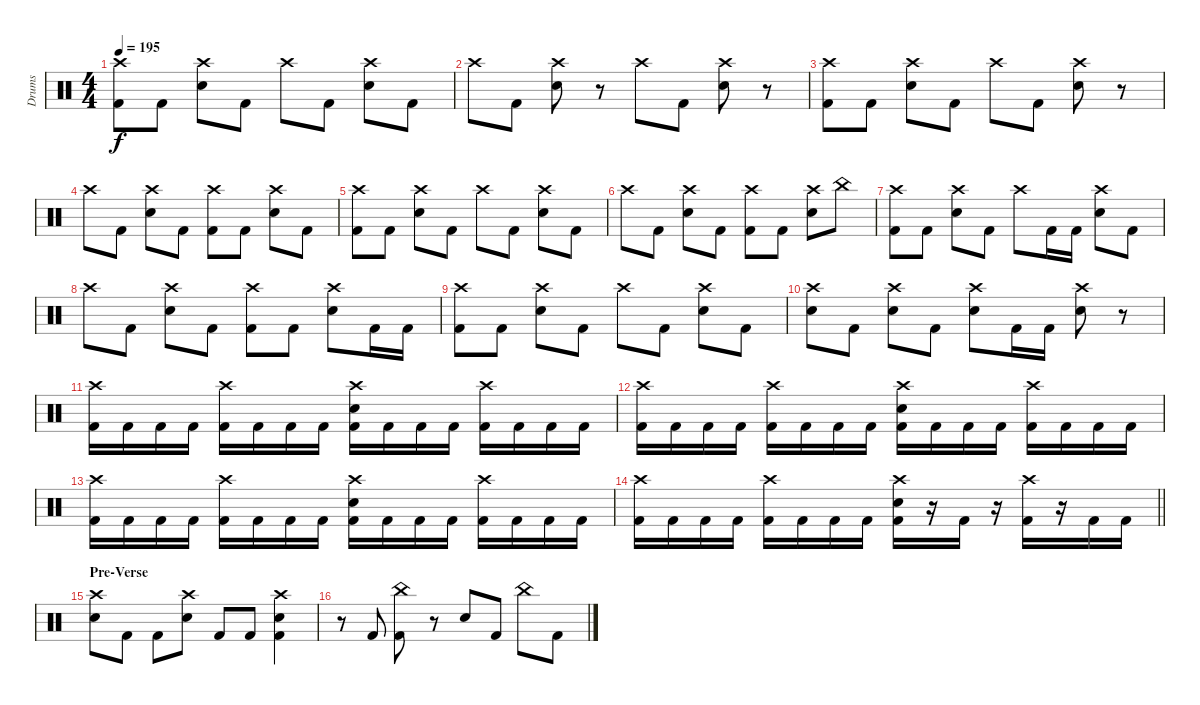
\track ("Drums" "Drums") {instrument percussion}
\staff {score}
\articulation defaults
\ts (4 4)
\tempo 195
\clef neutral
\ks c
("Crash high (hit)" "Kick (hit) 2").8{dy f} "Kick (hit) 2".8 ("Crash high (hit)" "Snare (hit) 2").8 "Kick (hit) 2".8 "Crash high (hit)".8 "Kick (hit) 2".8 ("Crash high (hit)" "Snare (hit) 2").8 "Kick (hit) 2".8 |
"Crash high (hit)".8 "Kick (hit) 2".8 ("Crash high (hit)" "Snare (hit) 2").8 r.8 "Crash high (hit)".8 "Kick (hit) 2".8 ("Crash high (hit)" "Snare (hit) 2").8 r.8 |
("Crash high (hit)" "Kick (hit) 2").8 "Kick (hit) 2".8 ("Crash high (hit)" "Snare (hit) 2").8 "Kick (hit) 2".8 "Crash high (hit)".8 "Kick (hit) 2".8 ("Crash high (hit)" "Snare (hit) 2").8 r.8 |
"Crash high (hit)".8 "Kick (hit) 2".8 ("Crash high (hit)" "Snare (hit) 2").8 "Kick (hit) 2".8 ("Crash high (hit)" "Kick (hit) 2").8 "Kick (hit) 2".8 ("Crash high (hit)" "Snare (hit) 2").8 "Kick (hit) 2".8 |
("Crash high (hit)" "Kick (hit) 2").8 "Kick (hit) 2".8 ("Crash high (hit)" "Snare (hit) 2").8 "Kick (hit) 2".8 "Crash high (hit)".8 "Kick (hit) 2".8 ("Crash high (hit)" "Snare (hit) 2").8 "Kick (hit) 2".8 |
"Crash high (hit)".8 "Kick (hit) 2".8 ("Crash high (hit)" "Snare (hit) 2").8 "Kick (hit) 2".8 ("Crash high (hit)" "Kick (hit) 2").8 "Kick (hit) 2".8 ("Crash high (hit)" "Snare (hit) 2").8 "China (hit)".8 |
("Crash high (hit)" "Kick (hit) 2").8 "Kick (hit) 2".8 ("Crash high (hit)" "Snare (hit) 2").8 "Kick (hit) 2".8 "Crash high (hit)".8 "Kick (hit) 2".16 "Kick (hit) 2".16 ("Crash high (hit)" "Snare (hit) 2").8 "Kick (hit) 2".8 |
"Crash high (hit)".8 "Kick (hit) 2".8 ("Crash high (hit)" "Snare (hit) 2").8 "Kick (hit) 2".8 ("Crash high (hit)" "Kick (hit) 2").8 "Kick (hit) 2".8 ("Crash high (hit)" "Snare (hit) 2").8 "Kick (hit) 2".16 "Kick (hit) 2".16 |
("Crash high (hit)" "Kick (hit) 2").8 "Kick (hit) 2".8 ("Crash high (hit)" "Snare (hit) 2").8 "Kick (hit) 2".8 "Crash high (hit)".8 "Kick (hit) 2".8 ("Crash high (hit)" "Snare (hit) 2").8 "Kick (hit) 2".8 |
("Crash high (hit)" "Snare (hit) 2").8 "Kick (hit) 2".8 ("Crash high (hit)" "Snare (hit) 2").8 "Kick (hit) 2".8 ("Crash high (hit)" "Snare (hit) 2").8 "Kick (hit) 2".16 "Kick (hit) 2".16 ("Crash high (hit)" "Snare (hit) 2").8 r.8 |
("Crash high (hit)" "Kick (hit) 2").16 "Kick (hit) 2".16 "Kick (hit) 2".16 "Kick (hit) 2".16 ("Crash high (hit)" "Kick (hit) 2").16 "Kick (hit) 2".16 "Kick (hit) 2".16 "Kick (hit) 2".16 ("Crash high (hit)" "Snare (hit) 2" "Kick (hit) 2").16 "Kick (hit) 2".16 "Kick (hit) 2".16 "Kick (hit) 2".16 ("Crash high (hit)" "Kick (hit) 2").16 "Kick (hit) 2".16 "Kick (hit) 2".16 "Kick (hit) 2".16 |
("Crash high (hit)" "Kick (hit) 2").16 "Kick (hit) 2".16 "Kick (hit) 2".16 "Kick (hit) 2".16 ("Crash high (hit)" "Kick (hit) 2").16 "Kick (hit) 2".16 "Kick (hit) 2".16 "Kick (hit) 2".16 ("Crash high (hit)" "Snare (hit) 2" "Kick (hit) 2").16 "Kick (hit) 2".16 "Kick (hit) 2".16 "Kick (hit) 2".16 ("Crash high (hit)" "Kick (hit) 2").16 "Kick (hit) 2".16 "Kick (hit) 2".16 "Kick (hit) 2".16 |
("Crash high (hit)" "Kick (hit) 2").16 "Kick (hit) 2".16 "Kick (hit) 2".16 "Kick (hit) 2".16 ("Crash high (hit)" "Kick (hit) 2").16 "Kick (hit) 2".16 "Kick (hit) 2".16 "Kick (hit) 2".16 ("Crash high (hit)" "Snare (hit) 2" "Kick (hit) 2").16 "Kick (hit) 2".16 "Kick (hit) 2".16 "Kick (hit) 2".16 ("Crash high (hit)" "Kick (hit) 2").16 "Kick (hit) 2".16 "Kick (hit) 2".16 "Kick (hit) 2".16 |
\barLineRight lightlight
("Crash high (hit)" "Kick (hit) 2").16 "Kick (hit) 2".16 "Kick (hit) 2".16 "Kick (hit) 2".16 ("Crash high (hit)" "Kick (hit) 2").16 "Kick (hit) 2".16 "Kick (hit) 2".16 "Kick (hit) 2".16 ("Crash high (hit)" "Snare (hit) 2" "Kick (hit) 2").16 r.16 "Kick (hit) 2".16 r.16 ("Crash high (hit)" "Kick (hit) 2").16 r.16 "Kick (hit) 2".16 "Kick (hit) 2".16 |
\section ("" "Pre-Verse")
("Crash high (hit)" "Snare (hit) 2").8 "Kick (hit) 2".8 "Kick (hit) 2".8 ("Crash high (hit)" "Snare (hit) 2").8 "Kick (hit) 2".8 "Kick (hit) 2".8 ("Crash high (hit)" "Snare (hit) 2" "Kick (hit) 2").4 |
r.8 "Kick (hit) 2".8 ("China (hit)" "Kick (hit) 2").8 r.8 "Snare (hit) 2".8 "Kick (hit) 2".8 "China (hit)".8 "Kick (hit) 2".8
